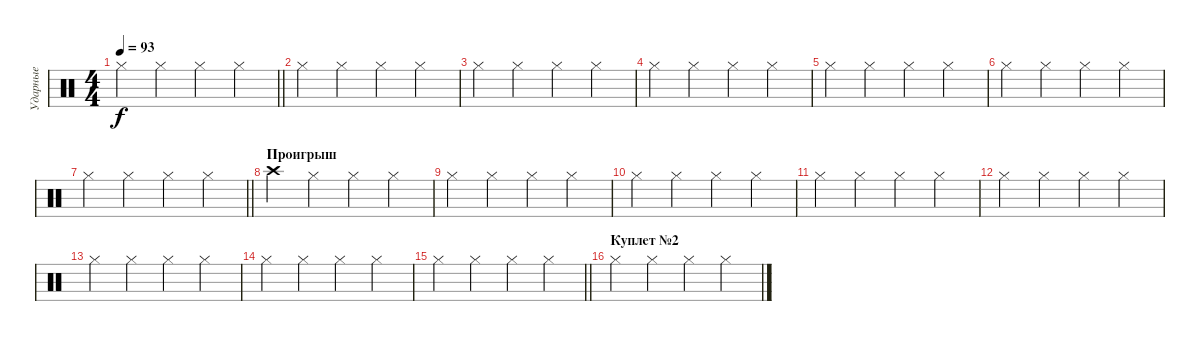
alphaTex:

\track ("Ударные" "Ударные") {instrument percussion}
\staff {score}
\articulation defaults
\ts (4 4)
\tempo 93
\clef neutral
\barLineRight lightlight
\ks c "Hi-Hat (closed)".4{dy f} "Hi-Hat (closed)".4 "Hi-Hat (closed)".4 "Hi-Hat (closed)".4
|
"Hi-Hat (closed)".4 "Hi-Hat (closed)".4 "Hi-Hat (closed)".4 "Hi-Hat (closed)".4 |
"Hi-Hat (closed)".4 "Hi-Hat (closed)".4 "Hi-Hat (closed)".4 "Hi-Hat (closed)".4 |
"Hi-Hat (closed)".4 "Hi-Hat (closed)".4 "Hi-Hat (closed)".4 "Hi-Hat (closed)".4 |
"Hi-Hat (closed)".4 "Hi-Hat (closed)".4 "Hi-Hat (closed)".4 "Hi-Hat (closed)".4 |
"Hi-Hat (closed)".4 "Hi-Hat (closed)".4 "Hi-Hat (closed)".4 "Hi-Hat (closed)".4 |
\barLineRight lightlight "Hi-Hat (closed)".4 "Hi-Hat (closed)".4 "Hi-Hat (closed)".4 "Hi-Hat (closed)".4
|
\section ("" "Проигрыш")
"Crash high (hit)".4 "Hi-Hat (closed)".4 "Hi-Hat (closed)".4 "Hi-Hat (closed)".4 |
"Hi-Hat (closed)".4 "Hi-Hat (closed)".4 "Hi-Hat (closed)".4 "Hi-Hat (closed)".4 |
"Hi-Hat (closed)".4 "Hi-Hat (closed)".4 "Hi-Hat (closed)".4 "Hi-Hat (closed)".4 |
"Hi-Hat (closed)".4 "Hi-Hat (closed)".4 "Hi-Hat (closed)".4 "Hi-Hat (closed)".4 |
"Hi-Hat (closed)".4 "Hi-Hat (closed)".4 "Hi-Hat (closed)".4 "Hi-Hat (closed)".4 |
"Hi-Hat (closed)".4 "Hi-Hat (closed)".4 "Hi-Hat (closed)".4 "Hi-Hat (closed)".4 |
"Hi-Hat (closed)".4 "Hi-Hat (closed)".4 "Hi-Hat (closed)".4 "Hi-Hat (closed)".4 |
\barLineRight lightlight "Hi-Hat (closed)".4 "Hi-Hat (closed)".4 "Hi-Hat (closed)".4 "Hi-Hat (closed)".4
|
\section ("" "Куплет №2")
"Hi-Hat (closed)".4 "Hi-Hat (closed)".4 "Hi-Hat (closed)".4 "Hi-Hat (closed)".4
